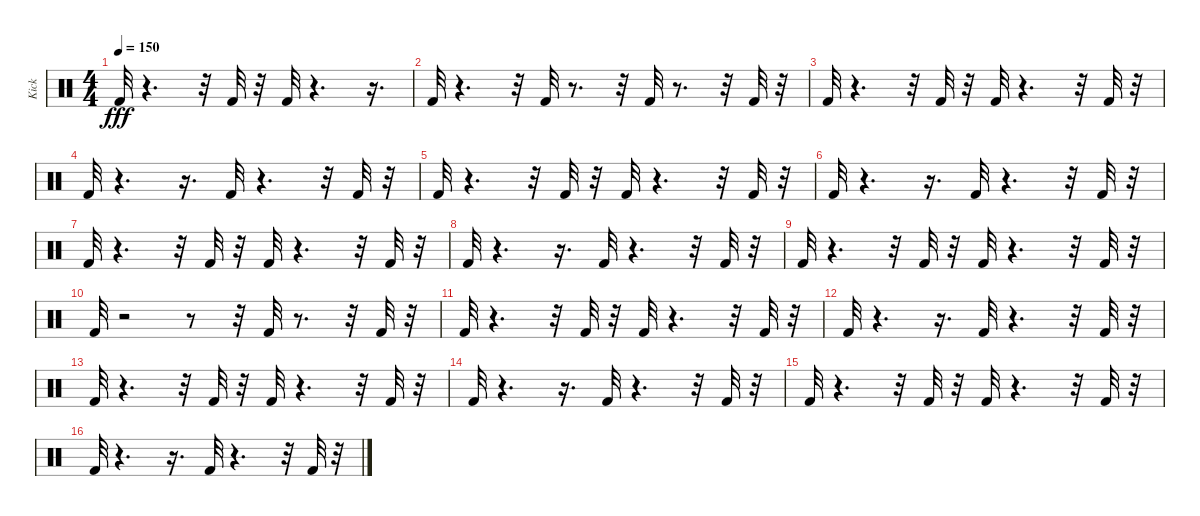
\track ("Kick" "Kick") {instrument percussion}
\staff {score}
\articulation defaults
\ts (4 4)
\tempo 150
\clef neutral
\ks c "Kick (hit) 2".32{dy fff}
r.4{d} r.32 "Kick (hit) 2".32 r.32 "Kick (hit) 2".32 r.4{d} r.16{d} |
"Kick (hit) 2".32 r.4{d} r.32 "Kick (hit) 2".32 r.8{d} r.32 "Kick (hit) 2".32 r.8{d} r.32 "Kick (hit) 2".32 r.32 |
"Kick (hit) 2".32 r.4{d} r.32 "Kick (hit) 2".32 r.32 "Kick (hit) 2".32 r.4{d} r.32 "Kick (hit) 2".32 r.32 |
"Kick (hit) 2".32 r.4{d} r.16{d} "Kick (hit) 2".32 r.4{d} r.32 "Kick (hit) 2".32 r.32 |
"Kick (hit) 2".32 r.4{d} r.32 "Kick (hit) 2".32 r.32 "Kick (hit) 2".32 r.4{d} r.32 "Kick (hit) 2".32 r.32 |
"Kick (hit) 2".32 r.4{d} r.16{d} "Kick (hit) 2".32 r.4{d} r.32 "Kick (hit) 2".32 r.32 |
"Kick (hit) 2".32 r.4{d} r.32 "Kick (hit) 2".32 r.32 "Kick (hit) 2".32 r.4{d} r.32 "Kick (hit) 2".32 r.32 |
"Kick (hit) 2".32 r.4{d} r.16{d} "Kick (hit) 2".32 r.4{d} r.32 "Kick (hit) 2".32 r.32 |
"Kick (hit) 2".32 r.4{d} r.32 "Kick (hit) 2".32 r.32 "Kick (hit) 2".32 r.4{d} r.32 "Kick (hit) 2".32 r.32 |
"Kick (hit) 2".32 r.2 r.8 r.32 "Kick (hit) 2".32 r.8{d} r.32 "Kick (hit) 2".32 r.32 |
"Kick (hit) 2".32 r.4{d} r.32 "Kick (hit) 2".32 r.32 "Kick (hit) 2".32 r.4{d} r.32 "Kick (hit) 2".32 r.32 |
"Kick (hit) 2".32 r.4{d} r.16{d} "Kick (hit) 2".32 r.4{d} r.32 "Kick (hit) 2".32 r.32 |
"Kick (hit) 2".32 r.4{d} r.32 "Kick (hit) 2".32 r.32 "Kick (hit) 2".32 r.4{d} r.32 "Kick (hit) 2".32 r.32 |
"Kick (hit) 2".32 r.4{d} r.16{d} "Kick (hit) 2".32 r.4{d} r.32 "Kick (hit) 2".32 r.32 |
"Kick (hit) 2".32 r.4{d} r.32 "Kick (hit) 2".32 r.32 "Kick (hit) 2".32 r.4{d} r.32 "Kick (hit) 2".32 r.32 |
"Kick (hit) 2".32 r.4{d} r.16{d} "Kick (hit) 2".32 r.4{d} r.32 "Kick (hit) 2".32 r.32
